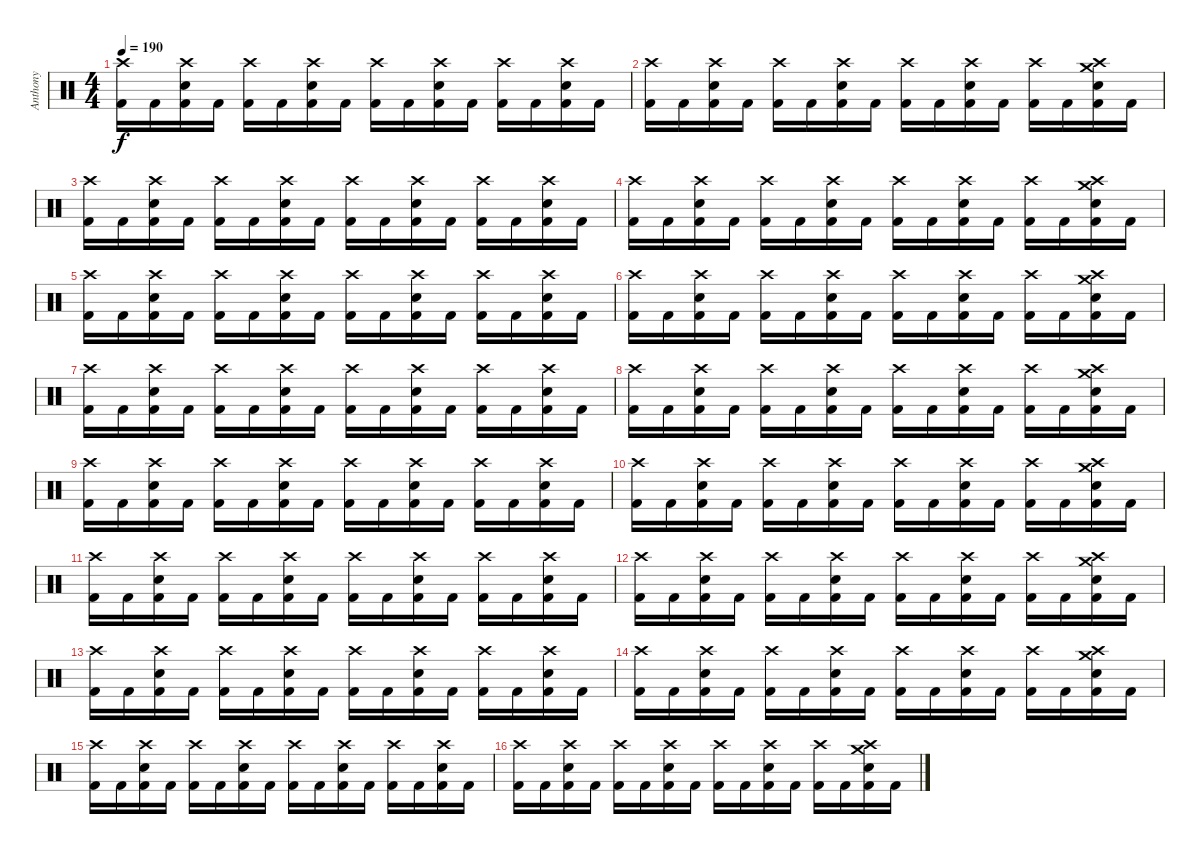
\track ("Anthony" "Anthony") {instrument percussion}
\staff {score}
\articulation defaults
\ts (4 4)
\tempo 190
\clef neutral
\ks c
("Crash high (hit)" "Kick (hit) 2").16{dy f} "Kick (hit) 2".16 ("Crash high (hit)" "Snare (hit) 2" "Kick (hit) 2").16 "Kick (hit) 2".16 ("Crash high (hit)" "Kick (hit) 2").16 "Kick (hit) 2".16 ("Crash high (hit)" "Snare (hit) 2" "Kick (hit) 2").16 "Kick (hit) 2".16 ("Crash high (hit)" "Kick (hit) 2").16 "Kick (hit) 2".16 ("Crash high (hit)" "Snare (hit) 2" "Kick (hit) 2").16 "Kick (hit) 2".16 ("Crash high (hit)" "Kick (hit) 2").16 "Kick (hit) 2".16 ("Crash high (hit)" "Snare (hit) 2" "Kick (hit) 2").16 "Kick (hit) 2".16 |
("Crash high (hit)" "Kick (hit) 2").16 "Kick (hit) 2".16 ("Crash high (hit)" "Snare (hit) 2" "Kick (hit) 2").16 "Kick (hit) 2".16 ("Crash high (hit)" "Kick (hit) 2").16 "Kick (hit) 2".16 ("Crash high (hit)" "Snare (hit) 2" "Kick (hit) 2").16 "Kick (hit) 2".16 ("Crash high (hit)" "Kick (hit) 2").16 "Kick (hit) 2".16 ("Crash high (hit)" "Snare (hit) 2" "Kick (hit) 2").16 "Kick (hit) 2".16 ("Crash high (hit)" "Kick (hit) 2").16 "Kick (hit) 2".16 ("Crash high (hit)" "Crash medium (hit)" "Snare (hit) 2" "Kick (hit) 2").16 "Kick (hit) 2".16 |
("Crash high (hit)" "Kick (hit) 2").16 "Kick (hit) 2".16 ("Crash high (hit)" "Snare (hit) 2" "Kick (hit) 2").16 "Kick (hit) 2".16 ("Crash high (hit)" "Kick (hit) 2").16 "Kick (hit) 2".16 ("Crash high (hit)" "Snare (hit) 2" "Kick (hit) 2").16 "Kick (hit) 2".16 ("Crash high (hit)" "Kick (hit) 2").16 "Kick (hit) 2".16 ("Crash high (hit)" "Snare (hit) 2" "Kick (hit) 2").16 "Kick (hit) 2".16 ("Crash high (hit)" "Kick (hit) 2").16 "Kick (hit) 2".16 ("Crash high (hit)" "Snare (hit) 2" "Kick (hit) 2").16 "Kick (hit) 2".16 |
("Crash high (hit)" "Kick (hit) 2").16 "Kick (hit) 2".16 ("Crash high (hit)" "Snare (hit) 2" "Kick (hit) 2").16 "Kick (hit) 2".16 ("Crash high (hit)" "Kick (hit) 2").16 "Kick (hit) 2".16 ("Crash high (hit)" "Snare (hit) 2" "Kick (hit) 2").16 "Kick (hit) 2".16 ("Crash high (hit)" "Kick (hit) 2").16 "Kick (hit) 2".16 ("Crash high (hit)" "Snare (hit) 2" "Kick (hit) 2").16 "Kick (hit) 2".16 ("Crash high (hit)" "Kick (hit) 2").16 "Kick (hit) 2".16 ("Crash high (hit)" "Crash medium (hit)" "Snare (hit) 2" "Kick (hit) 2").16 "Kick (hit) 2".16 |
("Crash high (hit)" "Kick (hit) 2").16 "Kick (hit) 2".16 ("Crash high (hit)" "Snare (hit) 2" "Kick (hit) 2").16 "Kick (hit) 2".16 ("Crash high (hit)" "Kick (hit) 2").16 "Kick (hit) 2".16 ("Crash high (hit)" "Snare (hit) 2" "Kick (hit) 2").16 "Kick (hit) 2".16 ("Crash high (hit)" "Kick (hit) 2").16 "Kick (hit) 2".16 ("Crash high (hit)" "Snare (hit) 2" "Kick (hit) 2").16 "Kick (hit) 2".16 ("Crash high (hit)" "Kick (hit) 2").16 "Kick (hit) 2".16 ("Crash high (hit)" "Snare (hit) 2" "Kick (hit) 2").16 "Kick (hit) 2".16 |
("Crash high (hit)" "Kick (hit) 2").16 "Kick (hit) 2".16 ("Crash high (hit)" "Snare (hit) 2" "Kick (hit) 2").16 "Kick (hit) 2".16 ("Crash high (hit)" "Kick (hit) 2").16 "Kick (hit) 2".16 ("Crash high (hit)" "Snare (hit) 2" "Kick (hit) 2").16 "Kick (hit) 2".16 ("Crash high (hit)" "Kick (hit) 2").16 "Kick (hit) 2".16 ("Crash high (hit)" "Snare (hit) 2" "Kick (hit) 2").16 "Kick (hit) 2".16 ("Crash high (hit)" "Kick (hit) 2").16 "Kick (hit) 2".16 ("Crash high (hit)" "Crash medium (hit)" "Snare (hit) 2" "Kick (hit) 2").16 "Kick (hit) 2".16 |
("Crash high (hit)" "Kick (hit) 2").16 "Kick (hit) 2".16 ("Crash high (hit)" "Snare (hit) 2" "Kick (hit) 2").16 "Kick (hit) 2".16 ("Crash high (hit)" "Kick (hit) 2").16 "Kick (hit) 2".16 ("Crash high (hit)" "Snare (hit) 2" "Kick (hit) 2").16 "Kick (hit) 2".16 ("Crash high (hit)" "Kick (hit) 2").16 "Kick (hit) 2".16 ("Crash high (hit)" "Snare (hit) 2" "Kick (hit) 2").16 "Kick (hit) 2".16 ("Crash high (hit)" "Kick (hit) 2").16 "Kick (hit) 2".16 ("Crash high (hit)" "Snare (hit) 2" "Kick (hit) 2").16 "Kick (hit) 2".16 |
("Crash high (hit)" "Kick (hit) 2").16 "Kick (hit) 2".16 ("Crash high (hit)" "Snare (hit) 2" "Kick (hit) 2").16 "Kick (hit) 2".16 ("Crash high (hit)" "Kick (hit) 2").16 "Kick (hit) 2".16 ("Crash high (hit)" "Snare (hit) 2" "Kick (hit) 2").16 "Kick (hit) 2".16 ("Crash high (hit)" "Kick (hit) 2").16 "Kick (hit) 2".16 ("Crash high (hit)" "Snare (hit) 2" "Kick (hit) 2").16 "Kick (hit) 2".16 ("Crash high (hit)" "Kick (hit) 2").16 "Kick (hit) 2".16 ("Crash high (hit)" "Crash medium (hit)" "Snare (hit) 2" "Kick (hit) 2").16 "Kick (hit) 2".16 |
("Crash high (hit)" "Kick (hit) 2").16 "Kick (hit) 2".16 ("Crash high (hit)" "Snare (hit) 2" "Kick (hit) 2").16 "Kick (hit) 2".16 ("Crash high (hit)" "Kick (hit) 2").16 "Kick (hit) 2".16 ("Crash high (hit)" "Snare (hit) 2" "Kick (hit) 2").16 "Kick (hit) 2".16 ("Crash high (hit)" "Kick (hit) 2").16 "Kick (hit) 2".16 ("Crash high (hit)" "Snare (hit) 2" "Kick (hit) 2").16 "Kick (hit) 2".16 ("Crash high (hit)" "Kick (hit) 2").16 "Kick (hit) 2".16 ("Crash high (hit)" "Snare (hit) 2" "Kick (hit) 2").16 "Kick (hit) 2".16 |
("Crash high (hit)" "Kick (hit) 2").16 "Kick (hit) 2".16 ("Crash high (hit)" "Snare (hit) 2" "Kick (hit) 2").16 "Kick (hit) 2".16 ("Crash high (hit)" "Kick (hit) 2").16 "Kick (hit) 2".16 ("Crash high (hit)" "Snare (hit) 2" "Kick (hit) 2").16 "Kick (hit) 2".16 ("Crash high (hit)" "Kick (hit) 2").16 "Kick (hit) 2".16 ("Crash high (hit)" "Snare (hit) 2" "Kick (hit) 2").16 "Kick (hit) 2".16 ("Crash high (hit)" "Kick (hit) 2").16 "Kick (hit) 2".16 ("Crash high (hit)" "Crash medium (hit)" "Snare (hit) 2" "Kick (hit) 2").16 "Kick (hit) 2".16 |
("Crash high (hit)" "Kick (hit) 2").16 "Kick (hit) 2".16 ("Crash high (hit)" "Snare (hit) 2" "Kick (hit) 2").16 "Kick (hit) 2".16 ("Crash high (hit)" "Kick (hit) 2").16 "Kick (hit) 2".16 ("Crash high (hit)" "Snare (hit) 2" "Kick (hit) 2").16 "Kick (hit) 2".16 ("Crash high (hit)" "Kick (hit) 2").16 "Kick (hit) 2".16 ("Crash high (hit)" "Snare (hit) 2" "Kick (hit) 2").16 "Kick (hit) 2".16 ("Crash high (hit)" "Kick (hit) 2").16 "Kick (hit) 2".16 ("Crash high (hit)" "Snare (hit) 2" "Kick (hit) 2").16 "Kick (hit) 2".16 |
("Crash high (hit)" "Kick (hit) 2").16 "Kick (hit) 2".16 ("Crash high (hit)" "Snare (hit) 2" "Kick (hit) 2").16 "Kick (hit) 2".16 ("Crash high (hit)" "Kick (hit) 2").16 "Kick (hit) 2".16 ("Crash high (hit)" "Snare (hit) 2" "Kick (hit) 2").16 "Kick (hit) 2".16 ("Crash high (hit)" "Kick (hit) 2").16 "Kick (hit) 2".16 ("Crash high (hit)" "Snare (hit) 2" "Kick (hit) 2").16 "Kick (hit) 2".16 ("Crash high (hit)" "Kick (hit) 2").16 "Kick (hit) 2".16 ("Crash high (hit)" "Crash medium (hit)" "Snare (hit) 2" "Kick (hit) 2").16 "Kick (hit) 2".16 |
("Crash high (hit)" "Kick (hit) 2").16 "Kick (hit) 2".16 ("Crash high (hit)" "Snare (hit) 2" "Kick (hit) 2").16 "Kick (hit) 2".16 ("Crash high (hit)" "Kick (hit) 2").16 "Kick (hit) 2".16 ("Crash high (hit)" "Snare (hit) 2" "Kick (hit) 2").16 "Kick (hit) 2".16 ("Crash high (hit)" "Kick (hit) 2").16 "Kick (hit) 2".16 ("Crash high (hit)" "Snare (hit) 2" "Kick (hit) 2").16 "Kick (hit) 2".16 ("Crash high (hit)" "Kick (hit) 2").16 "Kick (hit) 2".16 ("Crash high (hit)" "Snare (hit) 2" "Kick (hit) 2").16 "Kick (hit) 2".16 |
("Crash high (hit)" "Kick (hit) 2").16 "Kick (hit) 2".16 ("Crash high (hit)" "Snare (hit) 2" "Kick (hit) 2").16 "Kick (hit) 2".16 ("Crash high (hit)" "Kick (hit) 2").16 "Kick (hit) 2".16 ("Crash high (hit)" "Snare (hit) 2" "Kick (hit) 2").16 "Kick (hit) 2".16 ("Crash high (hit)" "Kick (hit) 2").16 "Kick (hit) 2".16 ("Crash high (hit)" "Snare (hit) 2" "Kick (hit) 2").16 "Kick (hit) 2".16 ("Crash high (hit)" "Kick (hit) 2").16 "Kick (hit) 2".16 ("Crash high (hit)" "Crash medium (hit)" "Snare (hit) 2" "Kick (hit) 2").16 "Kick (hit) 2".16 |
("Crash high (hit)" "Kick (hit) 2").16 "Kick (hit) 2".16 ("Crash high (hit)" "Snare (hit) 2" "Kick (hit) 2").16 "Kick (hit) 2".16 ("Crash high (hit)" "Kick (hit) 2").16 "Kick (hit) 2".16 ("Crash high (hit)" "Snare (hit) 2" "Kick (hit) 2").16 "Kick (hit) 2".16 ("Crash high (hit)" "Kick (hit) 2").16 "Kick (hit) 2".16 ("Crash high (hit)" "Snare (hit) 2" "Kick (hit) 2").16 "Kick (hit) 2".16 ("Crash high (hit)" "Kick (hit) 2").16 "Kick (hit) 2".16 ("Crash high (hit)" "Snare (hit) 2" "Kick (hit) 2").16 "Kick (hit) 2".16 |
("Crash high (hit)" "Kick (hit) 2").16 "Kick (hit) 2".16 ("Crash high (hit)" "Snare (hit) 2" "Kick (hit) 2").16 "Kick (hit) 2".16 ("Crash high (hit)" "Kick (hit) 2").16 "Kick (hit) 2".16 ("Crash high (hit)" "Snare (hit) 2" "Kick (hit) 2").16 "Kick (hit) 2".16 ("Crash high (hit)" "Kick (hit) 2").16 "Kick (hit) 2".16 ("Crash high (hit)" "Snare (hit) 2" "Kick (hit) 2").16 "Kick (hit) 2".16 ("Crash high (hit)" "Kick (hit) 2").16 "Kick (hit) 2".16 ("Crash high (hit)" "Crash medium (hit)" "Snare (hit) 2" "Kick (hit) 2").16 "Kick (hit) 2".16
